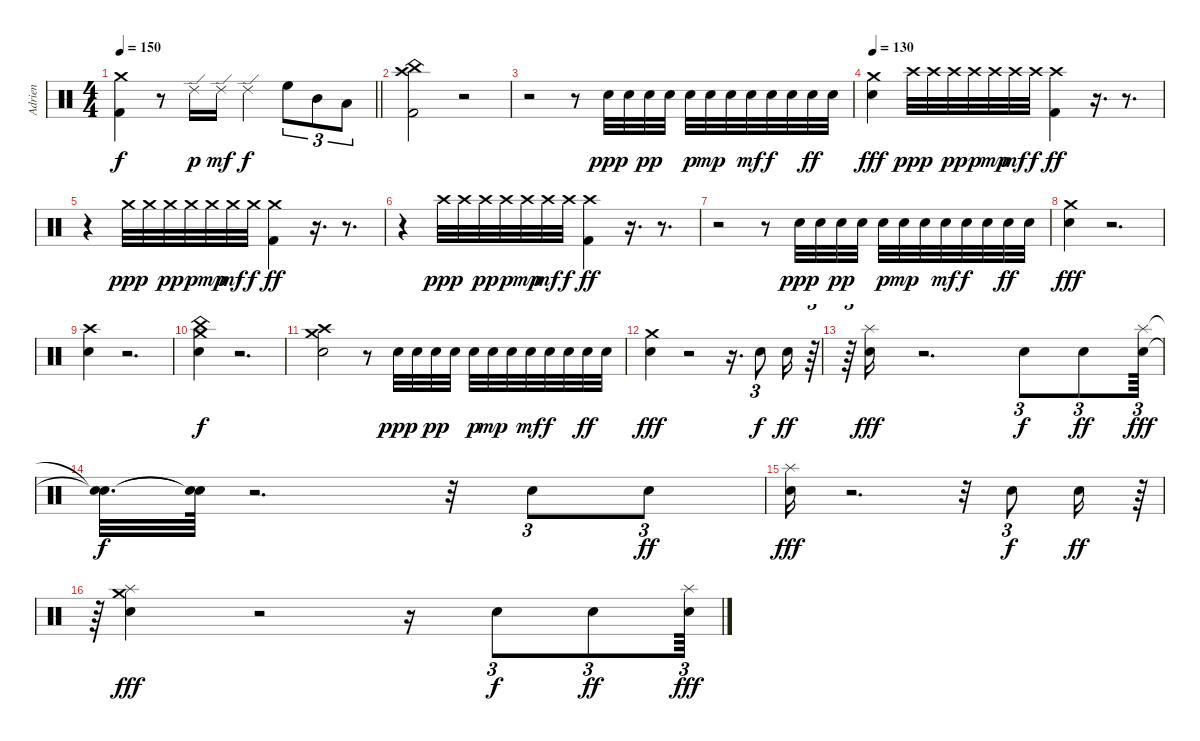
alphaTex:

\track ("Adrien" "Adrien") {instrument percussion}
\staff {score}
\articulation defaults
\ts (4 4)
\tempo 150
\clef neutral
\barLineRight lightlight
\ks c
("Crash medium (hit)" "Kick (hit) 2").4{dy f} r.8 "Ride (edge) 2".16{dy p} "Ride (edge) 2".16{dy mf} "Ride (edge) 2".4{dy f} "High Floor Tom (hit)".8{tu (3 2)} "Mid Tom (hit)".8{tu (3 2)} "Low Tom (hit)".8{tu (3 2)} |
("Crash high (hit)" "China (hit)" "Kick (hit) 2").2 r.2 |
r.2{volume 16} r.8 "Snare (hit) 2".32{dy ppp} "Snare (hit) 2".32 "Snare (hit) 2".32{dy pp} "Snare (hit) 2".32 "Snare (hit) 2".32{dy p} "Snare (hit) 2".32{dy mp} "Snare (hit) 2".32 "Snare (hit) 2".32{dy mf} "Snare (hit) 2".32{dy f} "Snare (hit) 2".32 "Snare (hit) 2".32{dy ff} "Snare (hit) 2".32 |
\tempo 130
("Snare (hit) 2" "Crash medium (hit)").4{dy fff} "Crash high (hit)".32{dy ppp} "Crash high (hit)".32 "Crash high (hit)".32{dy pp} "Crash high (hit)".32{dy p} "Crash high (hit)".32{dy mp} "Crash high (hit)".32{dy mf} "Crash high (hit)".32{dy f} ("Crash high (hit)" "Kick (hit) 2").4{dy ff} r.16{d} r.8{d} |
r.4 "Crash medium (hit)".32{dy ppp} "Crash medium (hit)".32 "Crash medium (hit)".32{dy pp} "Crash medium (hit)".32{dy p} "Crash medium (hit)".32{dy mp} "Crash medium (hit)".32{dy mf} "Crash medium (hit)".32{dy f} ("Crash medium (hit)" "Kick (hit) 2").4{dy ff} r.16{d} r.8{d} |
r.4 "Crash high (hit)".32{dy ppp} "Crash high (hit)".32 "Crash high (hit)".32{dy pp} "Crash high (hit)".32{dy p} "Crash high (hit)".32{dy mp} "Crash high (hit)".32{dy mf} "Crash high (hit)".32{dy f} ("Crash high (hit)" "Kick (hit) 2").4{dy ff} r.16{d} r.8{d} |
r.2 r.8 "Snare (hit) 2".32{dy ppp} "Snare (hit) 2".32 "Snare (hit) 2".32{dy pp} "Snare (hit) 2".32 "Snare (hit) 2".32{dy p} "Snare (hit) 2".32{dy mp} "Snare (hit) 2".32 "Snare (hit) 2".32{dy mf} "Snare (hit) 2".32{dy f} "Snare (hit) 2".32 "Snare (hit) 2".32{dy ff} "Snare (hit) 2".32 |
("Crash medium (hit)" "Snare (hit) 2").4{dy fff} r.2{d} |
("Crash high (hit)" "Snare (hit) 2").4 r.2{d} |
("Crash medium (hit)" "Snare (hit) 2" "China (hit)").4{dy f} r.2{d} |
("Crash high (hit)" "Snare (hit) 2" "Crash medium (hit)").2 r.8 "Snare (hit) 2".32{dy ppp} "Snare (hit) 2".32 "Snare (hit) 2".32{dy pp} "Snare (hit) 2".32 "Snare (hit) 2".32{dy p} "Snare (hit) 2".32{dy mp} "Snare (hit) 2".32 "Snare (hit) 2".32{dy mf} "Snare (hit) 2".32{dy f} "Snare (hit) 2".32 "Snare (hit) 2".32{dy ff} "Snare (hit) 2".32 |
("Crash medium (hit)" "Snare (hit) 2").4{dy fff} r.2 r.16{d} "Snare (hit) 2".8{tu (3 2) dy f} "Snare (hit) 2".16{dy ff} r.64{tu (3 2)} |
r.64{tu (3 2)} ("Snare (hit) 2" "Splash (hit)").16{dy fff} r.2{d} "Snare (hit) 2".8{tu (3 2) dy f} "Snare (hit) 2".8{tu (3 2) dy ff} ("Snare (hit) 2" "Splash (hit)").64{tu (3 2) dy fff} |
("Snare (hit)"{t} "Snare (hit)"{t}).32{d dy f} ("Snare (hit)"{t} "Snare (hit)"{t}).64 r.2{d} r.32 "Snare (hit) 2".8{tu (3 2)} "Snare (hit) 2".8{tu (3 2) dy ff} |
("Snare (hit) 2" "Splash (hit)").16{dy fff} r.2{d} r.32 "Snare (hit) 2".8{tu (3 2) dy f} "Snare (hit) 2".16{dy ff} r.64{tu (3 2)} |
r.64{tu (3 2)} ("Crash medium (hit)" "Snare (hit) 2" "Splash (hit)").4{dy fff} r.2 r.16 "Snare (hit) 2".8{tu (3 2) dy f} "Snare (hit) 2".8{tu (3 2) dy ff} ("Snare (hit) 2" "Splash (hit)").64{tu (3 2) dy fff}
